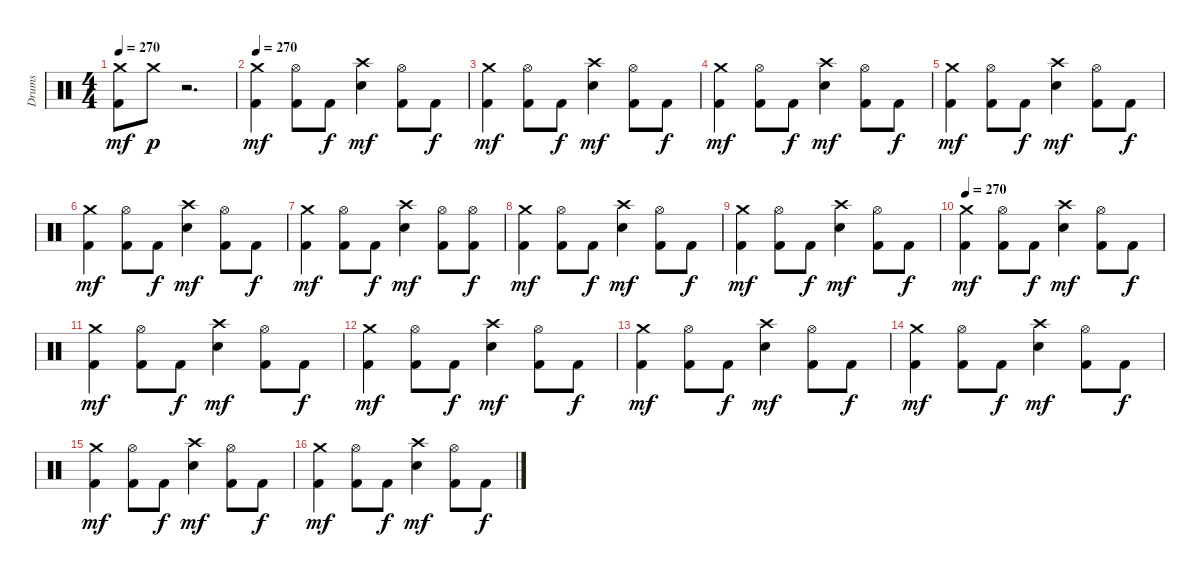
\track ("Drums" "Drums") {instrument percussion}
\staff {score}
\articulation defaults
\ts (4 4)
\tempo 270
\clef neutral
\ks c
("Crash medium (hit)" "Kick (hit) 2").8{dy mf} "Crash medium (hit)".8{dy p} r.2{d} |
\tempo 270
("Crash medium (hit)" "Kick (hit) 2").4{dy mf} ("Hi-Hat (open)" "Kick (hit) 2").8 "Kick (hit) 2".8{dy f} ("Crash high (hit)" "Snare (hit) 2").4{dy mf} ("Hi-Hat (open)" "Kick (hit) 2").8 "Kick (hit) 2".8{dy f} |
("Crash medium (hit)" "Kick (hit) 2").4{dy mf} ("Hi-Hat (open)" "Kick (hit) 2").8 "Kick (hit) 2".8{dy f} ("Crash high (hit)" "Snare (hit) 2").4{dy mf} ("Hi-Hat (open)" "Kick (hit) 2").8 "Kick (hit) 2".8{dy f} |
("Crash medium (hit)" "Kick (hit) 2").4{dy mf} ("Hi-Hat (open)" "Kick (hit) 2").8 "Kick (hit) 2".8{dy f} ("Crash high (hit)" "Snare (hit) 2").4{dy mf} ("Hi-Hat (open)" "Kick (hit) 2").8 "Kick (hit) 2".8{dy f} |
("Crash medium (hit)" "Kick (hit) 2").4{dy mf} ("Hi-Hat (open)" "Kick (hit) 2").8 "Kick (hit) 2".8{dy f} ("Crash high (hit)" "Snare (hit) 2").4{dy mf} ("Hi-Hat (open)" "Kick (hit) 2").8 "Kick (hit) 2".8{dy f} |
("Crash medium (hit)" "Kick (hit) 2").4{dy mf} ("Hi-Hat (open)" "Kick (hit) 2").8 "Kick (hit) 2".8{dy f} ("Crash high (hit)" "Snare (hit) 2").4{dy mf} ("Hi-Hat (open)" "Kick (hit) 2").8 "Kick (hit) 2".8{dy f} |
("Crash medium (hit)" "Kick (hit) 2").4{dy mf} ("Hi-Hat (open)" "Kick (hit) 2").8 "Kick (hit) 2".8{dy f} ("Crash high (hit)" "Snare (hit) 2").4{dy mf} ("Hi-Hat (open)" "Kick (hit) 2").8 ("Hi-Hat (open)" "Kick (hit) 2").8{dy f} |
("Crash medium (hit)" "Kick (hit) 2").4{dy mf} ("Hi-Hat (open)" "Kick (hit) 2").8 "Kick (hit) 2".8{dy f} ("Crash high (hit)" "Snare (hit) 2").4{dy mf} ("Hi-Hat (open)" "Kick (hit) 2").8 "Kick (hit) 2".8{dy f} |
("Crash medium (hit)" "Kick (hit) 2").4{dy mf} ("Hi-Hat (open)" "Kick (hit) 2").8 "Kick (hit) 2".8{dy f} ("Crash high (hit)" "Snare (hit) 2").4{dy mf} ("Hi-Hat (open)" "Kick (hit) 2").8 "Kick (hit) 2".8{dy f} |
\tempo 270
("Crash medium (hit)" "Kick (hit) 2").4{dy mf} ("Hi-Hat (open)" "Kick (hit) 2").8 "Kick (hit) 2".8{dy f} ("Crash high (hit)" "Snare (hit) 2").4{dy mf} ("Hi-Hat (open)" "Kick (hit) 2").8 "Kick (hit) 2".8{dy f} |
("Crash medium (hit)" "Kick (hit) 2").4{dy mf} ("Hi-Hat (open)" "Kick (hit) 2").8 "Kick (hit) 2".8{dy f} ("Crash high (hit)" "Snare (hit) 2").4{dy mf} ("Hi-Hat (open)" "Kick (hit) 2").8 "Kick (hit) 2".8{dy f} |
("Crash medium (hit)" "Kick (hit) 2").4{dy mf} ("Hi-Hat (open)" "Kick (hit) 2").8 "Kick (hit) 2".8{dy f} ("Crash high (hit)" "Snare (hit) 2").4{dy mf} ("Hi-Hat (open)" "Kick (hit) 2").8 "Kick (hit) 2".8{dy f} |
("Crash medium (hit)" "Kick (hit) 2").4{dy mf} ("Hi-Hat (open)" "Kick (hit) 2").8 "Kick (hit) 2".8{dy f} ("Crash high (hit)" "Snare (hit) 2").4{dy mf} ("Hi-Hat (open)" "Kick (hit) 2").8 "Kick (hit) 2".8{dy f} |
("Crash medium (hit)" "Kick (hit) 2").4{dy mf} ("Hi-Hat (open)" "Kick (hit) 2").8 "Kick (hit) 2".8{dy f} ("Crash high (hit)" "Snare (hit) 2").4{dy mf} ("Hi-Hat (open)" "Kick (hit) 2").8 "Kick (hit) 2".8{dy f} |
("Crash medium (hit)" "Kick (hit) 2").4{dy mf} ("Hi-Hat (open)" "Kick (hit) 2").8 "Kick (hit) 2".8{dy f} ("Crash high (hit)" "Snare (hit) 2").4{dy mf} ("Hi-Hat (open)" "Kick (hit) 2").8 "Kick (hit) 2".8{dy f} |
("Crash medium (hit)" "Kick (hit) 2").4{dy mf} ("Hi-Hat (open)" "Kick (hit) 2").8 "Kick (hit) 2".8{dy f} ("Crash high (hit)" "Snare (hit) 2").4{dy mf} ("Hi-Hat (open)" "Kick (hit) 2").8 "Kick (hit) 2".8{dy f}
